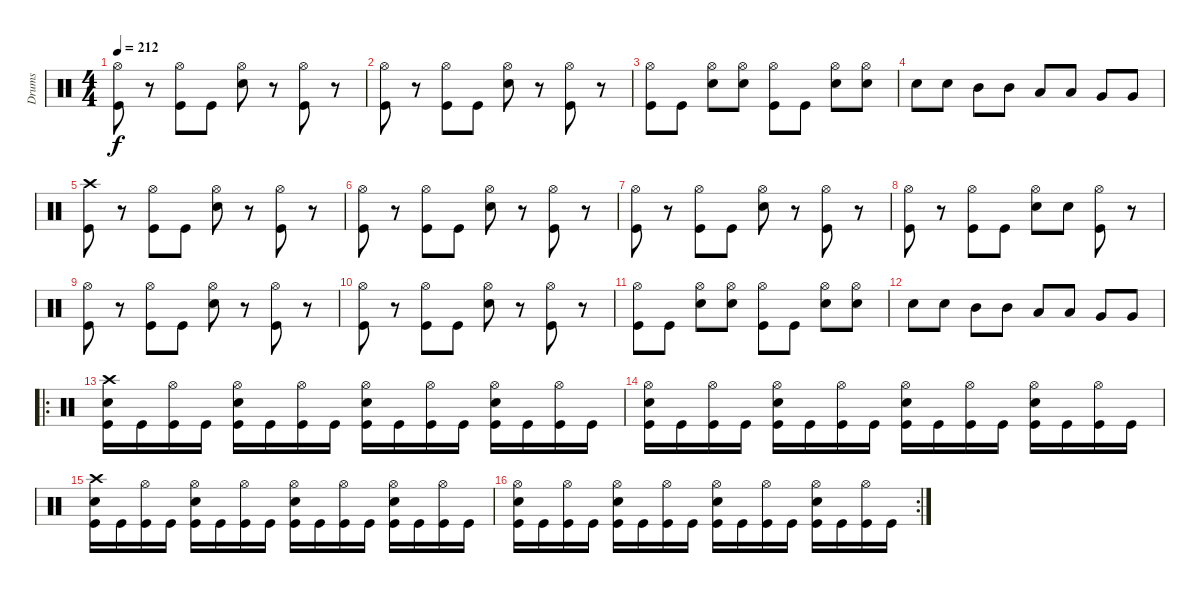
\track ("Drums" "Drums") {instrument percussion}
\staff {score}
\articulation defaults
\ts (4 4)
\tempo 212
\clef neutral
\ks c
("Hi-Hat (open)" "Kick (hit)").8{dy f} r.8 ("Hi-Hat (open)" "Kick (hit)").8 "Kick (hit)".8 ("Hi-Hat (open)" "Snare (hit) 2").8 r.8 ("Hi-Hat (open)" "Kick (hit)").8 r.8 |
("Hi-Hat (open)" "Kick (hit)").8 r.8 ("Hi-Hat (open)" "Kick (hit)").8 "Kick (hit)".8 ("Hi-Hat (open)" "Snare (hit) 2").8 r.8 ("Hi-Hat (open)" "Kick (hit)").8 r.8 |
("Hi-Hat (open)" "Kick (hit)").8 "Kick (hit)".8 ("Hi-Hat (open)" "Snare (hit) 2").8 ("Hi-Hat (open)" "Snare (hit) 2").8 ("Hi-Hat (open)" "Kick (hit)").8 "Kick (hit)".8 ("Hi-Hat (open)" "Snare (hit) 2").8 ("Hi-Hat (open)" "Snare (hit) 2").8 |
"Snare (hit) 2".8 "Snare (hit) 2".8 "Mid Tom (hit)".8 "Mid Tom (hit)".8 "Low Tom (hit)".8 "Low Tom (hit)".8 "Very Low Tom (hit)".8 "Very Low Tom (hit)".8 |
("Crash high (hit)" "Kick (hit)").8 r.8 ("Hi-Hat (open)" "Kick (hit)").8 "Kick (hit)".8 ("Hi-Hat (open)" "Snare (hit) 2").8 r.8 ("Hi-Hat (open)" "Kick (hit)").8 r.8 |
("Hi-Hat (open)" "Kick (hit)").8 r.8 ("Hi-Hat (open)" "Kick (hit)").8 "Kick (hit)".8 ("Hi-Hat (open)" "Snare (hit) 2").8 r.8 ("Hi-Hat (open)" "Kick (hit)").8 r.8 |
("Hi-Hat (open)" "Kick (hit)").8 r.8 ("Hi-Hat (open)" "Kick (hit)").8 "Kick (hit)".8 ("Hi-Hat (open)" "Snare (hit) 2").8 r.8 ("Hi-Hat (open)" "Kick (hit)").8 r.8 |
("Hi-Hat (open)" "Kick (hit)").8 r.8 ("Hi-Hat (open)" "Kick (hit)").8 "Kick (hit)".8 ("Hi-Hat (open)" "Snare (hit) 2").8 "Snare (hit) 2".8 ("Hi-Hat (open)" "Kick (hit)").8 r.8 |
("Hi-Hat (open)" "Kick (hit)").8 r.8 ("Hi-Hat (open)" "Kick (hit)").8 "Kick (hit)".8 ("Hi-Hat (open)" "Snare (hit) 2").8 r.8 ("Hi-Hat (open)" "Kick (hit)").8 r.8 |
("Hi-Hat (open)" "Kick (hit)").8 r.8 ("Hi-Hat (open)" "Kick (hit)").8 "Kick (hit)".8 ("Hi-Hat (open)" "Snare (hit) 2").8 r.8 ("Hi-Hat (open)" "Kick (hit)").8 r.8 |
("Hi-Hat (open)" "Kick (hit)").8 "Kick (hit)".8 ("Hi-Hat (open)" "Snare (hit) 2").8 ("Hi-Hat (open)" "Snare (hit) 2").8 ("Hi-Hat (open)" "Kick (hit)").8 "Kick (hit)".8 ("Hi-Hat (open)" "Snare (hit) 2").8 ("Hi-Hat (open)" "Snare (hit) 2").8 |
"Snare (hit) 2".8 "Snare (hit) 2".8 "Mid Tom (hit)".8 "Mid Tom (hit)".8 "Low Tom (hit)".8 "Low Tom (hit)".8 "Very Low Tom (hit)".8 "Very Low Tom (hit)".8 |
\ro
("Crash high (hit)" "Snare (hit) 2" "Kick (hit)").16 "Kick (hit)".16 ("Hi-Hat (open)" "Kick (hit)").16 "Kick (hit)".16 ("Hi-Hat (open)" "Snare (hit) 2" "Kick (hit)").16 "Kick (hit)".16 ("Hi-Hat (open)" "Kick (hit)").16 "Kick (hit)".16 ("Hi-Hat (open)" "Snare (hit) 2" "Kick (hit)").16 "Kick (hit)".16 ("Hi-Hat (open)" "Kick (hit)").16 "Kick (hit)".16 ("Hi-Hat (open)" "Snare (hit) 2" "Kick (hit)").16 "Kick (hit)".16 ("Hi-Hat (open)" "Kick (hit)").16 "Kick (hit)".16 |
("Hi-Hat (open)" "Snare (hit) 2" "Kick (hit)").16 "Kick (hit)".16 ("Hi-Hat (open)" "Kick (hit)").16 "Kick (hit)".16 ("Hi-Hat (open)" "Snare (hit) 2" "Kick (hit)").16 "Kick (hit)".16 ("Hi-Hat (open)" "Kick (hit)").16 "Kick (hit)".16 ("Hi-Hat (open)" "Snare (hit) 2" "Kick (hit)").16 "Kick (hit)".16 ("Hi-Hat (open)" "Kick (hit)").16 "Kick (hit)".16 ("Hi-Hat (open)" "Snare (hit) 2" "Kick (hit)").16 "Kick (hit)".16 ("Hi-Hat (open)" "Kick (hit)").16 "Kick (hit)".16 |
("Crash high (hit)" "Snare (hit) 2" "Kick (hit)").16 "Kick (hit)".16 ("Hi-Hat (open)" "Kick (hit)").16 "Kick (hit)".16 ("Hi-Hat (open)" "Snare (hit) 2" "Kick (hit)").16 "Kick (hit)".16 ("Hi-Hat (open)" "Kick (hit)").16 "Kick (hit)".16 ("Hi-Hat (open)" "Snare (hit) 2" "Kick (hit)").16 "Kick (hit)".16 ("Hi-Hat (open)" "Kick (hit)").16 "Kick (hit)".16 ("Hi-Hat (open)" "Snare (hit) 2" "Kick (hit)").16 "Kick (hit)".16 ("Hi-Hat (open)" "Kick (hit)").16 "Kick (hit)".16 |
\rc 2
("Hi-Hat (open)" "Snare (hit) 2" "Kick (hit)").16 "Kick (hit)".16 ("Hi-Hat (open)" "Kick (hit)").16 "Kick (hit)".16 ("Hi-Hat (open)" "Snare (hit) 2" "Kick (hit)").16 "Kick (hit)".16 ("Hi-Hat (open)" "Kick (hit)").16 "Kick (hit)".16 ("Hi-Hat (open)" "Snare (hit) 2" "Kick (hit)").16 "Kick (hit)".16 ("Hi-Hat (open)" "Kick (hit)").16 "Kick (hit)".16 ("Hi-Hat (open)" "Snare (hit) 2" "Kick (hit)").16 "Kick (hit)".16 ("Hi-Hat (open)" "Kick (hit)").16 "Kick (hit)".16
